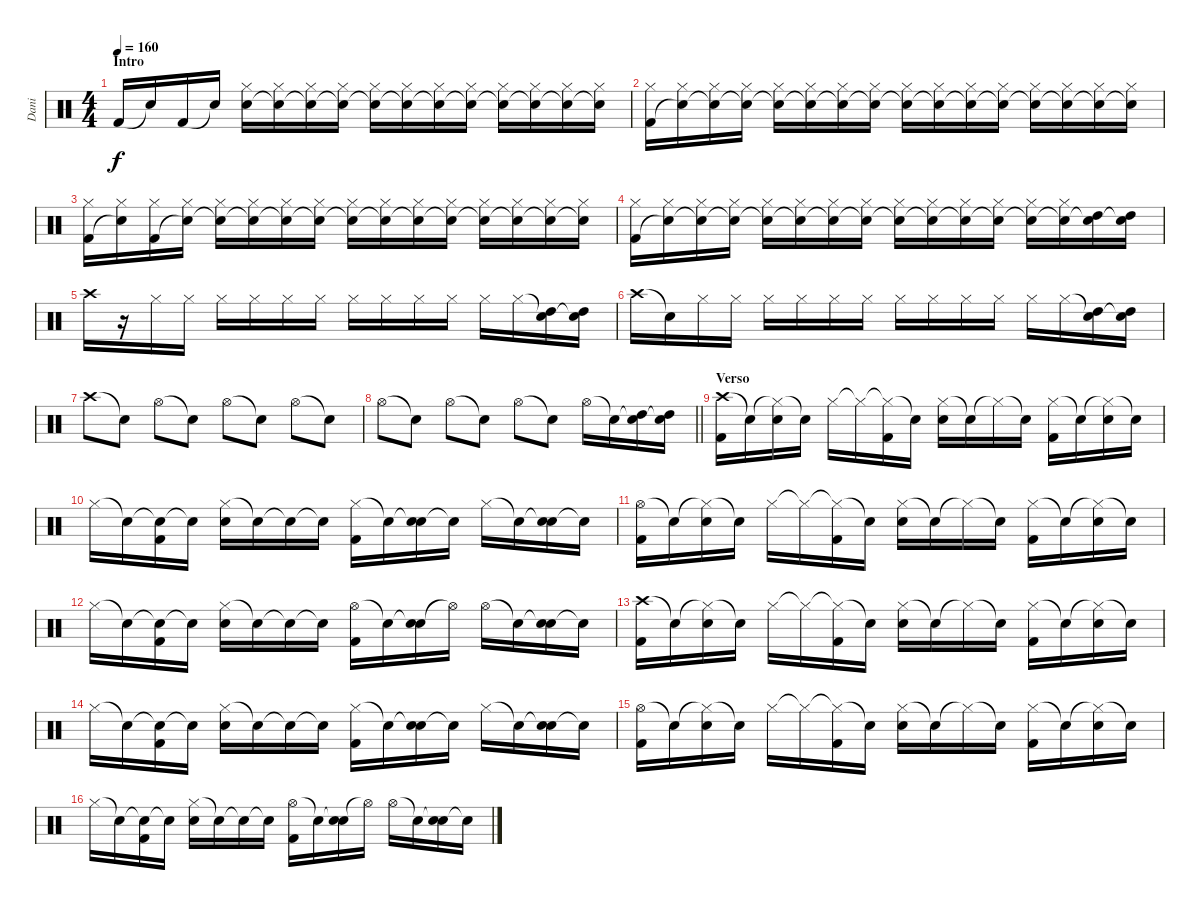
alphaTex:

\track ("Dani " "Dani ") {instrument percussion}
\staff {score}
\articulation defaults
\ts (4 4)
\section ("" "Intro")
\tempo 160
\clef neutral
\ks c "Kick (hit) 2".16{dy f} "Snare (hit)"{t}.16 "Kick (hit) 2".16 "Snare (hit)"{t}.16
("Hi-Hat (closed)" "Snare (hit)").16 ("Hi-Hat (closed)" "Snare (hit)"{t}).16 ("Hi-Hat (closed)" "Snare (hit)"{t}).16 ("Hi-Hat (closed)" "Snare (hit)"{t}).16 ("Hi-Hat (closed)" "Snare (hit)"{t}).16 ("Hi-Hat (closed)" "Snare (hit)"{t}).16 ("Hi-Hat (closed)" "Snare (hit)"{t}).16 ("Hi-Hat (closed)" "Snare (hit)"{t}).16 ("Hi-Hat (closed)" "Snare (hit)"{t}).16 ("Hi-Hat (closed)" "Snare (hit)"{t}).16 ("Hi-Hat (closed)" "Snare (hit)"{t}).16 ("Hi-Hat (closed)" "Snare (hit)"{t}).16 |
("Hi-Hat (closed)" "Kick (hit) 2").16 ("Hi-Hat (closed)" "Snare (hit)"{t}).16 ("Hi-Hat (closed)" "Snare (hit)"{t}).16 ("Hi-Hat (closed)" "Snare (hit)"{t}).16 ("Hi-Hat (closed)" "Snare (hit)"{t}).16 ("Hi-Hat (closed)" "Snare (hit)"{t}).16 ("Hi-Hat (closed)" "Snare (hit)"{t}).16 ("Hi-Hat (closed)" "Snare (hit)"{t}).16 ("Hi-Hat (closed)" "Snare (hit)"{t}).16 ("Hi-Hat (closed)" "Snare (hit)"{t}).16 ("Hi-Hat (closed)" "Snare (hit)"{t}).16 ("Hi-Hat (closed)" "Snare (hit)"{t}).16 ("Hi-Hat (closed)" "Snare (hit)"{t}).16 ("Hi-Hat (closed)" "Snare (hit)"{t}).16 ("Hi-Hat (closed)" "Snare (hit)"{t}).16 ("Hi-Hat (closed)" "Snare (hit)"{t}).16 |
("Hi-Hat (closed)" "Kick (hit) 2").16 ("Hi-Hat (closed)" "Snare (hit)"{t}).16 ("Hi-Hat (closed)" "Kick (hit) 2").16 ("Hi-Hat (closed)" "Snare (hit)"{t}).16 ("Hi-Hat (closed)" "Snare (hit)"{t}).16 ("Hi-Hat (closed)" "Snare (hit)"{t}).16 ("Hi-Hat (closed)" "Snare (hit)"{t}).16 ("Hi-Hat (closed)" "Snare (hit)"{t}).16 ("Hi-Hat (closed)" "Snare (hit)"{t}).16 ("Hi-Hat (closed)" "Snare (hit)"{t}).16 ("Hi-Hat (closed)" "Snare (hit)"{t}).16 ("Hi-Hat (closed)" "Snare (hit)"{t}).16 ("Hi-Hat (closed)" "Snare (hit)"{t}).16 ("Hi-Hat (closed)" "Snare (hit)"{t}).16 ("Hi-Hat (closed)" "Snare (hit)"{t}).16 ("Hi-Hat (closed)" "Snare (hit)"{t}).16 |
("Hi-Hat (closed)" "Kick (hit) 2").16 ("Hi-Hat (closed)" "Snare (hit)"{t}).16 ("Hi-Hat (closed)" "Snare (hit)"{t}).16 ("Hi-Hat (closed)" "Snare (hit)"{t}).16 ("Hi-Hat (closed)" "Snare (hit)"{t}).16 ("Hi-Hat (closed)" "Snare (hit)"{t}).16 ("Hi-Hat (closed)" "Snare (hit)"{t}).16 ("Hi-Hat (closed)" "Snare (hit)"{t}).16 ("Hi-Hat (closed)" "Snare (hit)"{t}).16 ("Hi-Hat (closed)" "Snare (hit)"{t}).16 ("Hi-Hat (closed)" "Snare (hit)"{t}).16 ("Hi-Hat (closed)" "Snare (hit)"{t}).16 ("Hi-Hat (closed)" "Snare (hit)"{t}).16 ("Hi-Hat (closed)" "Snare (hit)"{t}).16 ("High Tom (hit)" "Snare (hit)"{t}).16 ("High Tom (hit)" "Snare (hit)"{t}).16 |
"Crash high (hit)".16 r.16 "Hi-Hat (closed)".16 "Hi-Hat (closed)".16 "Hi-Hat (closed)".16 "Hi-Hat (closed)".16 "Hi-Hat (closed)".16 "Hi-Hat (closed)".16 "Hi-Hat (closed)".16 "Hi-Hat (closed)".16 "Hi-Hat (closed)".16 "Hi-Hat (closed)".16 "Hi-Hat (closed)".16 "Hi-Hat (closed)".16 ("Snare (hit)"{t} "High Tom (hit)").16 ("Snare (hit)"{t} "High Tom (hit)").16 |
"Crash high (hit)".16 "Snare (hit)"{t}.16 "Hi-Hat (closed)".16 "Hi-Hat (closed)".16 "Hi-Hat (closed)".16 "Hi-Hat (closed)".16 "Hi-Hat (closed)".16 "Hi-Hat (closed)".16 "Hi-Hat (closed)".16 "Hi-Hat (closed)".16 "Hi-Hat (closed)".16 "Hi-Hat (closed)".16 "Hi-Hat (closed)".16 "Hi-Hat (closed)".16 ("Snare (hit)"{t} "High Tom (hit)").16 ("Snare (hit)"{t} "High Tom (hit)").16 |
"Crash high (hit)".8 "Snare (hit)"{t}.8 "Hi-Hat (open)".8 "Snare (hit)"{t}.8 "Hi-Hat (open)".8 "Snare (hit)"{t}.8 "Hi-Hat (open)".8 "Snare (hit)"{t}.8 |
\barLineRight lightlight "Hi-Hat (open)".8 "Snare (hit)"{t}.8 "Hi-Hat (open)".8 "Snare (hit)"{t}.8 "Hi-Hat (open)".8 "Snare (hit)"{t}.8 "Hi-Hat (open)".16 "Snare (hit)"{t}.16
("Snare (hit)"{t} "High Tom (hit)").16 ("Snare (hit)"{t} "High Tom (hit)").16 |
\section ("" "Verso")
("Crash high (hit)" "Kick (hit) 2").16 "Snare (hit)"{t}.16 ("Hi-Hat (closed)"{t} "Electric Snare (hit)").16 "Snare (hit)"{t}.16 "Hi-Hat (closed)".16 "Hi-Hat (closed)"{t}.16 ("Hi-Hat (closed)"{t} "Kick (hit) 2").16 "Snare (hit)"{t}.16 ("Hi-Hat (closed)" "Electric Snare (hit)").16 "Snare (hit)"{t}.16 "Hi-Hat (closed)"{t}.16 "Snare (hit)"{t}.16 ("Hi-Hat (closed)" "Kick (hit) 2").16 "Snare (hit)"{t}.16 ("Hi-Hat (closed)"{t} "Electric Snare (hit)").16 "Snare (hit)"{t}.16 |
"Hi-Hat (closed)".16 "Snare (hit)"{t}.16 ("Snare (hit)"{t} "Kick (hit) 2").16 "Snare (hit)"{t}.16 ("Hi-Hat (closed)" "Electric Snare (hit)").16 "Snare (hit)"{t}.16 "Snare (hit)"{t}.16 "Snare (hit)"{t}.16 ("Hi-Hat (closed)" "Kick (hit) 2").16 "Snare (hit)"{t}.16 ("Snare (hit)"{t} "Electric Snare (hit)").16 "Snare (hit)"{t}.16 "Hi-Hat (closed)".16 "Snare (hit)"{t}.16 ("Snare (hit)"{t} "Electric Snare (hit)").16 "Snare (hit)"{t}.16 |
("Hi-Hat (open)" "Kick (hit) 2").16 "Snare (hit)"{t}.16 ("Hi-Hat (closed)"{t} "Electric Snare (hit)").16 "Snare (hit)"{t}.16 "Hi-Hat (closed)".16 "Hi-Hat (closed)"{t}.16 ("Hi-Hat (closed)"{t} "Kick (hit) 2").16 "Snare (hit)"{t}.16 ("Hi-Hat (closed)" "Electric Snare (hit)").16 "Snare (hit)"{t}.16 "Hi-Hat (closed)"{t}.16 "Snare (hit)"{t}.16 ("Hi-Hat (closed)" "Kick (hit) 2").16 "Snare (hit)"{t}.16 ("Hi-Hat (closed)"{t} "Electric Snare (hit)").16 "Snare (hit)"{t}.16 |
"Hi-Hat (closed)".16 "Snare (hit)"{t}.16 ("Snare (hit)"{t} "Kick (hit) 2").16 "Snare (hit)"{t}.16 ("Hi-Hat (closed)" "Electric Snare (hit)").16 "Snare (hit)"{t}.16 "Snare (hit)"{t}.16 "Snare (hit)"{t}.16 ("Hi-Hat (open)" "Kick (hit) 2").16 "Snare (hit)"{t}.16 ("Snare (hit)"{t} "Electric Snare (hit)").16 "Hi-Hat (open)"{t}.16 "Hi-Hat (open)".16 "Snare (hit)"{t}.16 ("Snare (hit)"{t} "Electric Snare (hit)").16 "Snare (hit)"{t}.16 |
("Crash high (hit)" "Kick (hit) 2").16 "Snare (hit)"{t}.16 ("Hi-Hat (closed)"{t} "Electric Snare (hit)").16 "Snare (hit)"{t}.16 "Hi-Hat (closed)".16 "Hi-Hat (closed)"{t}.16 ("Hi-Hat (closed)"{t} "Kick (hit) 2").16 "Snare (hit)"{t}.16 ("Hi-Hat (closed)" "Electric Snare (hit)").16 "Snare (hit)"{t}.16 "Hi-Hat (closed)"{t}.16 "Snare (hit)"{t}.16 ("Hi-Hat (closed)" "Kick (hit) 2").16 "Snare (hit)"{t}.16 ("Hi-Hat (closed)"{t} "Electric Snare (hit)").16 "Snare (hit)"{t}.16 |
"Hi-Hat (closed)".16 "Snare (hit)"{t}.16 ("Snare (hit)"{t} "Kick (hit) 2").16 "Snare (hit)"{t}.16 ("Hi-Hat (closed)" "Electric Snare (hit)").16 "Snare (hit)"{t}.16 "Snare (hit)"{t}.16 "Snare (hit)"{t}.16 ("Hi-Hat (closed)" "Kick (hit) 2").16 "Snare (hit)"{t}.16 ("Snare (hit)"{t} "Electric Snare (hit)").16 "Snare (hit)"{t}.16 "Hi-Hat (closed)".16 "Snare (hit)"{t}.16 ("Snare (hit)"{t} "Electric Snare (hit)").16 "Snare (hit)"{t}.16 |
("Hi-Hat (open)" "Kick (hit) 2").16 "Snare (hit)"{t}.16 ("Hi-Hat (closed)"{t} "Electric Snare (hit)").16 "Snare (hit)"{t}.16 "Hi-Hat (closed)".16 "Hi-Hat (closed)"{t}.16 ("Hi-Hat (closed)"{t} "Kick (hit) 2").16 "Snare (hit)"{t}.16 ("Hi-Hat (closed)" "Electric Snare (hit)").16 "Snare (hit)"{t}.16 "Hi-Hat (closed)"{t}.16 "Snare (hit)"{t}.16 ("Hi-Hat (closed)" "Kick (hit) 2").16 "Snare (hit)"{t}.16 ("Hi-Hat (closed)"{t} "Electric Snare (hit)").16 "Snare (hit)"{t}.16 |
"Hi-Hat (closed)".16 "Snare (hit)"{t}.16 ("Snare (hit)"{t} "Kick (hit) 2").16 "Snare (hit)"{t}.16 ("Hi-Hat (closed)" "Electric Snare (hit)").16 "Snare (hit)"{t}.16 "Snare (hit)"{t}.16 "Snare (hit)"{t}.16 ("Hi-Hat (open)" "Kick (hit) 2").16 "Snare (hit)"{t}.16 ("Snare (hit)"{t} "Electric Snare (hit)").16 "Hi-Hat (open)"{t}.16 "Hi-Hat (open)".16 "Snare (hit)"{t}.16 ("Snare (hit)"{t} "Electric Snare (hit)").16 "Snare (hit)"{t}.16
